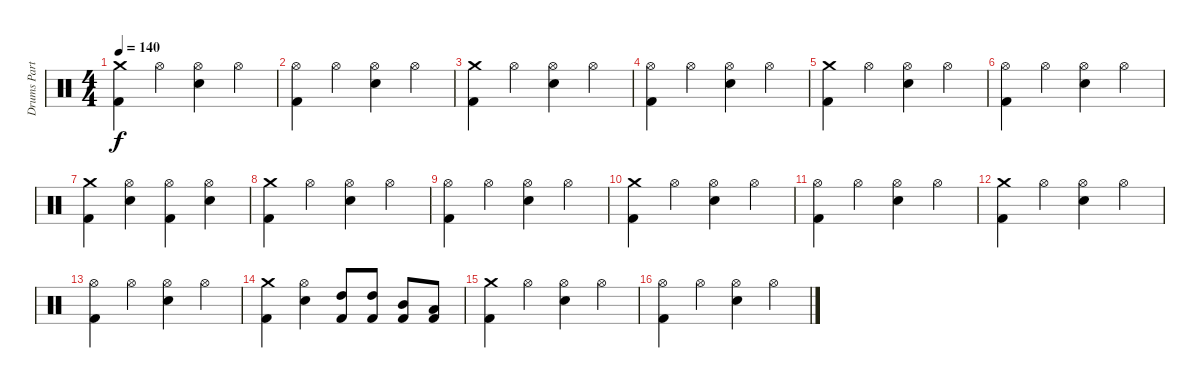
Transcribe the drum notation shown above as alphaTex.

\track ("Drums Part" "Drums Part") {instrument percussion}
\staff {score}
\articulation defaults
\ts (4 4)
\tempo 140
\clef neutral
\ks c
("Crash medium (hit)" "Kick (hit) 2").4{dy f} "Hi-Hat (open)".4 ("Hi-Hat (open)" "Electric Snare (hit)").4 "Hi-Hat (open)".4 |
("Hi-Hat (open)" "Kick (hit) 2").4 "Hi-Hat (open)".4 ("Hi-Hat (open)" "Electric Snare (hit)").4 "Hi-Hat (open)".4 |
("Crash medium (hit)" "Kick (hit) 2").4 "Hi-Hat (open)".4 ("Hi-Hat (open)" "Electric Snare (hit)").4 "Hi-Hat (open)".4 |
("Hi-Hat (open)" "Kick (hit) 2").4 "Hi-Hat (open)".4 ("Hi-Hat (open)" "Electric Snare (hit)").4 "Hi-Hat (open)".4 |
("Crash medium (hit)" "Kick (hit) 2").4 "Hi-Hat (open)".4 ("Hi-Hat (open)" "Electric Snare (hit)").4 "Hi-Hat (open)".4 |
("Hi-Hat (open)" "Kick (hit) 2").4 "Hi-Hat (open)".4 ("Hi-Hat (open)" "Electric Snare (hit)").4 "Hi-Hat (open)".4 |
("Crash medium (hit)" "Kick (hit) 2").4 ("Hi-Hat (open)" "Electric Snare (hit)").4 ("Hi-Hat (open)" "Kick (hit) 2").4 ("Hi-Hat (open)" "Electric Snare (hit)").4 |
("Crash medium (hit)" "Kick (hit) 2").4 "Hi-Hat (open)".4 ("Hi-Hat (open)" "Electric Snare (hit)").4 "Hi-Hat (open)".4 |
("Hi-Hat (open)" "Kick (hit) 2").4 "Hi-Hat (open)".4 ("Hi-Hat (open)" "Electric Snare (hit)").4 "Hi-Hat (open)".4 |
("Crash medium (hit)" "Kick (hit) 2").4 "Hi-Hat (open)".4 ("Hi-Hat (open)" "Electric Snare (hit)").4 "Hi-Hat (open)".4 |
("Hi-Hat (open)" "Kick (hit) 2").4 "Hi-Hat (open)".4 ("Hi-Hat (open)" "Electric Snare (hit)").4 "Hi-Hat (open)".4 |
("Crash medium (hit)" "Kick (hit) 2").4 "Hi-Hat (open)".4 ("Hi-Hat (open)" "Electric Snare (hit)").4 "Hi-Hat (open)".4 |
("Hi-Hat (open)" "Kick (hit) 2").4 "Hi-Hat (open)".4 ("Hi-Hat (open)" "Electric Snare (hit)").4 "Hi-Hat (open)".4 |
("Crash medium (hit)" "Kick (hit) 2").4 ("Hi-Hat (open)" "Electric Snare (hit)").4 ("High Tom (hit)" "Kick (hit) 2").8 ("High Tom (hit)" "Kick (hit) 2").8 ("Mid Tom (hit)" "Kick (hit) 2").8 ("Low Tom (hit)" "Kick (hit) 2").8 |
("Crash medium (hit)" "Kick (hit) 2").4 "Hi-Hat (open)".4 ("Hi-Hat (open)" "Electric Snare (hit)").4 "Hi-Hat (open)".4 |
("Hi-Hat (open)" "Kick (hit) 2").4 "Hi-Hat (open)".4 ("Hi-Hat (open)" "Electric Snare (hit)").4 "Hi-Hat (open)".4
